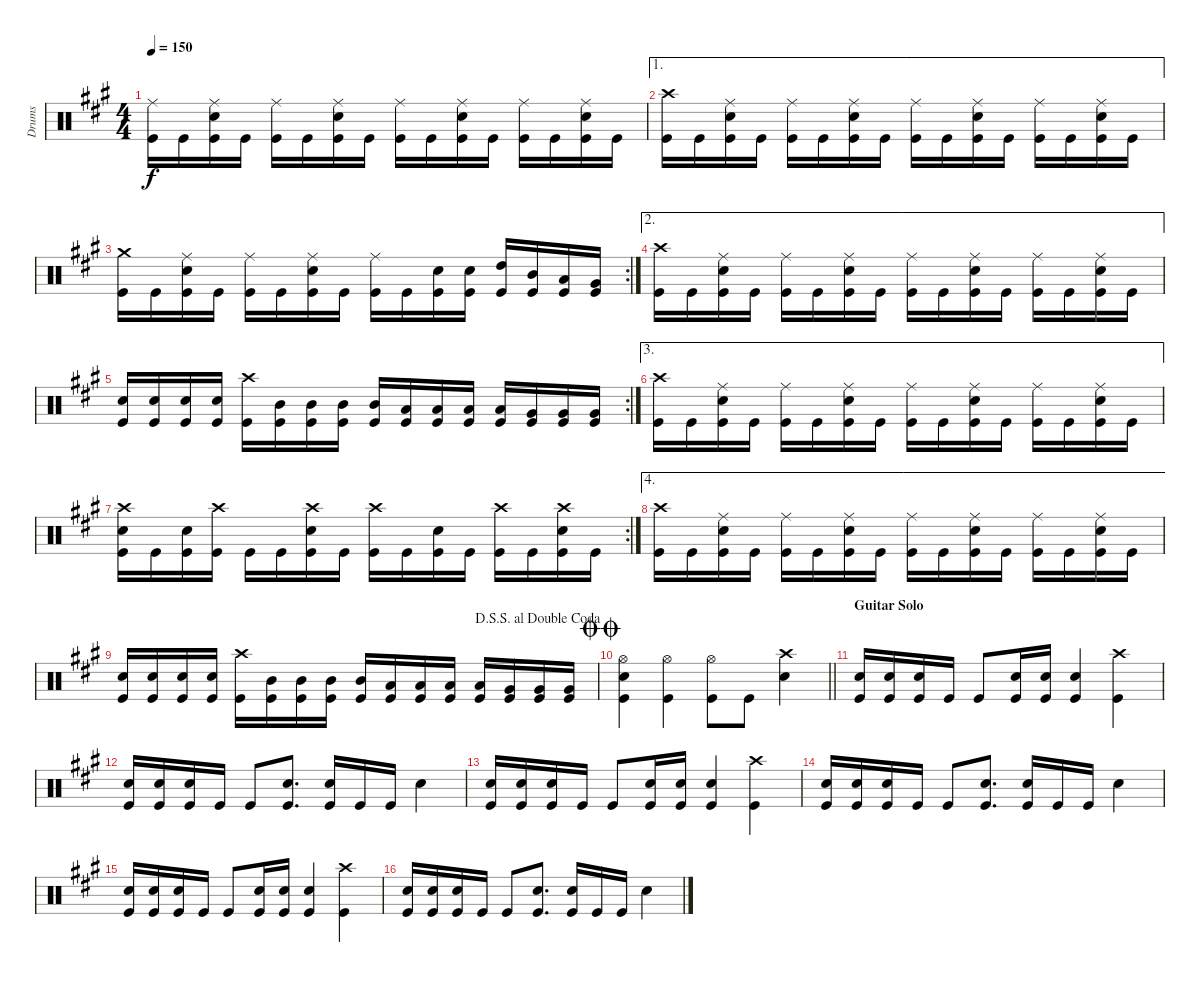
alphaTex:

\track ("Drums" "Drums") {instrument percussion}
\staff {score}
\articulation defaults
\ts (4 4)
\tempo 150
\clef neutral
\ks f#minor
("Kick (hit)" "Ride (middle)").16{dy f} "Kick (hit)".16 ("Kick (hit)" "Snare (hit) 2" "Ride (middle)").16 "Kick (hit)".16 ("Kick (hit)" "Ride (middle)").16 "Kick (hit)".16 ("Kick (hit)" "Snare (hit) 2" "Ride (middle)").16 "Kick (hit)".16 ("Kick (hit)" "Ride (middle)").16 "Kick (hit)".16 ("Kick (hit)" "Snare (hit) 2" "Ride (middle)").16 "Kick (hit)".16 ("Kick (hit)" "Ride (middle)").16 "Kick (hit)".16 ("Kick (hit)" "Snare (hit) 2" "Ride (middle)").16 "Kick (hit)".16 |
\ae 1
("Kick (hit)" "Crash high (hit)").16 "Kick (hit)".16 ("Kick (hit)" "Snare (hit) 2" "Ride (middle)").16 "Kick (hit)".16 ("Kick (hit)" "Ride (middle)").16 "Kick (hit)".16 ("Kick (hit)" "Snare (hit) 2" "Ride (middle)").16 "Kick (hit)".16 ("Kick (hit)" "Ride (middle)").16 "Kick (hit)".16 ("Kick (hit)" "Snare (hit) 2" "Ride (middle)").16 "Kick (hit)".16 ("Kick (hit)" "Ride (middle)").16 "Kick (hit)".16 ("Kick (hit)" "Snare (hit) 2" "Ride (middle)").16 "Kick (hit)".16 |
\rc 2
("Kick (hit)" "Crash medium (hit)").16 "Kick (hit)".16 ("Kick (hit)" "Snare (hit) 2" "Ride (middle)").16 "Kick (hit)".16 ("Kick (hit)" "Ride (middle)").16 "Kick (hit)".16 ("Kick (hit)" "Snare (hit) 2" "Ride (middle)").16 "Kick (hit)".16 ("Kick (hit)" "Ride (middle)").16 "Kick (hit)".16 ("Kick (hit)" "Snare (hit) 2").16 ("Kick (hit)" "Snare (hit) 2").16 ("Kick (hit)" "High Tom (hit)").16 ("Mid Tom (hit)" "Kick (hit)").16 ("Kick (hit)" "Low Tom (hit)").16 ("Kick (hit)" "Very Low Tom (hit)").16 |
\ae 2
("Kick (hit)" "Crash high (hit)").16 "Kick (hit)".16 ("Kick (hit)" "Snare (hit) 2" "Ride (middle)").16 "Kick (hit)".16 ("Kick (hit)" "Ride (middle)").16 "Kick (hit)".16 ("Kick (hit)" "Snare (hit) 2" "Ride (middle)").16 "Kick (hit)".16 ("Kick (hit)" "Ride (middle)").16 "Kick (hit)".16 ("Kick (hit)" "Snare (hit) 2" "Ride (middle)").16 "Kick (hit)".16 ("Kick (hit)" "Ride (middle)").16 "Kick (hit)".16 ("Kick (hit)" "Snare (hit) 2" "Ride (middle)").16 "Kick (hit)".16 |
\rc 2
("Kick (hit)" "Snare (hit) 2").16 ("Kick (hit)" "Snare (hit) 2").16 ("Kick (hit)" "Snare (hit) 2").16 ("Kick (hit)" "Snare (hit) 2").16 ("Kick (hit)" "Crash high (hit)").16 ("Kick (hit)" "Mid Tom (hit)").16 ("Kick (hit)" "Mid Tom (hit)").16 ("Kick (hit)" "Mid Tom (hit)").16 ("Kick (hit)" "Mid Tom (hit)").16 ("Kick (hit)" "Low Tom (hit)").16 ("Kick (hit)" "Low Tom (hit)").16 ("Kick (hit)" "Low Tom (hit)").16 ("Kick (hit)" "Low Tom (hit)").16 ("Kick (hit)" "Very Low Tom (hit)").16 ("Kick (hit)" "Very Low Tom (hit)").16 ("Kick (hit)" "Very Low Tom (hit)").16 |
\ae 3
("Kick (hit)" "Crash high (hit)").16 "Kick (hit)".16 ("Kick (hit)" "Snare (hit) 2" "Ride (middle)").16 "Kick (hit)".16 ("Kick (hit)" "Ride (middle)").16 "Kick (hit)".16 ("Kick (hit)" "Snare (hit) 2" "Ride (middle)").16 "Kick (hit)".16 ("Kick (hit)" "Ride (middle)").16 "Kick (hit)".16 ("Kick (hit)" "Snare (hit) 2" "Ride (middle)").16 "Kick (hit)".16 ("Kick (hit)" "Ride (middle)").16 "Kick (hit)".16 ("Kick (hit)" "Snare (hit) 2" "Ride (middle)").16 "Kick (hit)".16 |
\rc 2
("Kick (hit)" "Snare (hit) 2" "Crash high (hit)").16 "Kick (hit)".16 ("Kick (hit)" "Snare (hit) 2").16 ("Kick (hit)" "Crash high (hit)").16 "Kick (hit)".16 "Kick (hit)".16 ("Kick (hit)" "Snare (hit) 2" "Crash high (hit)").16 "Kick (hit)".16 ("Kick (hit)" "Crash high (hit)").16 "Kick (hit)".16 ("Kick (hit)" "Snare (hit) 2").16 "Kick (hit)".16 ("Kick (hit)" "Crash high (hit)").16 "Kick (hit)".16 ("Kick (hit)" "Crash high (hit)" "Snare (hit) 2").16 "Kick (hit)".16 |
\ae 4
("Kick (hit)" "Crash high (hit)").16 "Kick (hit)".16 ("Kick (hit)" "Snare (hit) 2" "Ride (middle)").16 "Kick (hit)".16 ("Kick (hit)" "Ride (middle)").16 "Kick (hit)".16 ("Kick (hit)" "Snare (hit) 2" "Ride (middle)").16 "Kick (hit)".16 ("Kick (hit)" "Ride (middle)").16 "Kick (hit)".16 ("Kick (hit)" "Snare (hit) 2" "Ride (middle)").16 "Kick (hit)".16 ("Kick (hit)" "Ride (middle)").16 "Kick (hit)".16 ("Kick (hit)" "Snare (hit) 2" "Ride (middle)").16 "Kick (hit)".16 |
\jump dalsegnosegnoaldoublecoda
("Kick (hit)" "Snare (hit) 2").16 ("Kick (hit)" "Snare (hit) 2").16 ("Kick (hit)" "Snare (hit) 2").16 ("Kick (hit)" "Snare (hit) 2").16 ("Kick (hit)" "Crash high (hit)").16 ("Kick (hit)" "Mid Tom (hit)").16 ("Kick (hit)" "Mid Tom (hit)").16 ("Kick (hit)" "Mid Tom (hit)").16 ("Kick (hit)" "Mid Tom (hit)").16 ("Kick (hit)" "Low Tom (hit)").16 ("Kick (hit)" "Low Tom (hit)").16 ("Kick (hit)" "Low Tom (hit)").16 ("Kick (hit)" "Low Tom (hit)").16 ("Kick (hit)" "Very Low Tom (hit)").16 ("Kick (hit)" "Very Low Tom (hit)").16 ("Kick (hit)" "Very Low Tom (hit)").16 |
\jump doublecoda
\barLineRight lightlight
("Hi-Hat (open)" "Kick (hit)" "Snare (hit) 2").4 ("Hi-Hat (open)" "Kick (hit)").4 ("Hi-Hat (open)" "Kick (hit)").8 "Kick (hit)".8 ("Snare (hit) 2" "Crash high (hit)").4 |
\section ("" "Guitar Solo")
("Snare (hit) 2" "Kick (hit)").16 ("Snare (hit) 2" "Kick (hit)").16 ("Snare (hit) 2" "Kick (hit)").16 "Kick (hit)".16 "Kick (hit)".8 ("Snare (hit) 2" "Kick (hit)").16 ("Snare (hit) 2" "Kick (hit)").16 ("Snare (hit) 2" "Kick (hit)").4 ("Crash high (hit)" "Kick (hit)").4 |
("Kick (hit)" "Snare (hit) 2").16 ("Kick (hit)" "Snare (hit) 2").16 ("Kick (hit)" "Snare (hit) 2").16 "Kick (hit)".16 "Kick (hit)".8 ("Snare (hit) 2" "Kick (hit)").8{d} ("Snare (hit) 2" "Kick (hit)").16 "Kick (hit)".16 "Kick (hit)".16 "Snare (hit) 2".4 |
("Snare (hit) 2" "Kick (hit)").16 ("Snare (hit) 2" "Kick (hit)").16 ("Snare (hit) 2" "Kick (hit)").16 "Kick (hit)".16 "Kick (hit)".8 ("Snare (hit) 2" "Kick (hit)").16 ("Snare (hit) 2" "Kick (hit)").16 ("Snare (hit) 2" "Kick (hit)").4 ("Crash high (hit)" "Kick (hit)").4 |
("Kick (hit)" "Snare (hit) 2").16 ("Kick (hit)" "Snare (hit) 2").16 ("Kick (hit)" "Snare (hit) 2").16 "Kick (hit)".16 "Kick (hit)".8 ("Snare (hit) 2" "Kick (hit)").8{d} ("Snare (hit) 2" "Kick (hit)").16 "Kick (hit)".16 "Kick (hit)".16 "Snare (hit) 2".4 |
("Snare (hit) 2" "Kick (hit)").16 ("Snare (hit) 2" "Kick (hit)").16 ("Snare (hit) 2" "Kick (hit)").16 "Kick (hit)".16 "Kick (hit)".8 ("Snare (hit) 2" "Kick (hit)").16 ("Snare (hit) 2" "Kick (hit)").16 ("Snare (hit) 2" "Kick (hit)").4 ("Crash high (hit)" "Kick (hit)").4 |
("Kick (hit)" "Snare (hit) 2").16 ("Kick (hit)" "Snare (hit) 2").16 ("Kick (hit)" "Snare (hit) 2").16 "Kick (hit)".16 "Kick (hit)".8 ("Snare (hit) 2" "Kick (hit)").8{d} ("Snare (hit) 2" "Kick (hit)").16 "Kick (hit)".16 "Kick (hit)".16 "Snare (hit) 2".4
